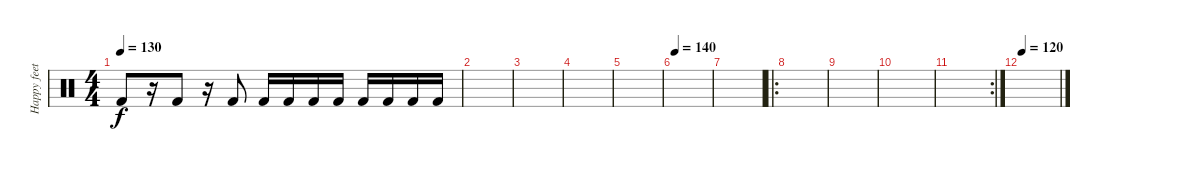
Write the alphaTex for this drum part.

\track ("Happy feet" "Happy feet") {instrument percussion}
\staff {score}
\articulation defaults
\ts (4 4)
\tempo 130
\clef neutral
\ks c "Kick (hit) 2".8{dy f}
r.16 "Kick (hit) 2".8 r.16 "Kick (hit) 2".8 "Kick (hit) 2".16 "Kick (hit) 2".16 "Kick (hit) 2".16 "Kick (hit) 2".16 "Kick (hit) 2".16 "Kick (hit) 2".16 "Kick (hit) 2".16 "Kick (hit) 2".16 |
|
|
|
|
\tempo 140
|
|
\ro
|
|
|
\rc 2
|
\tempo 120
